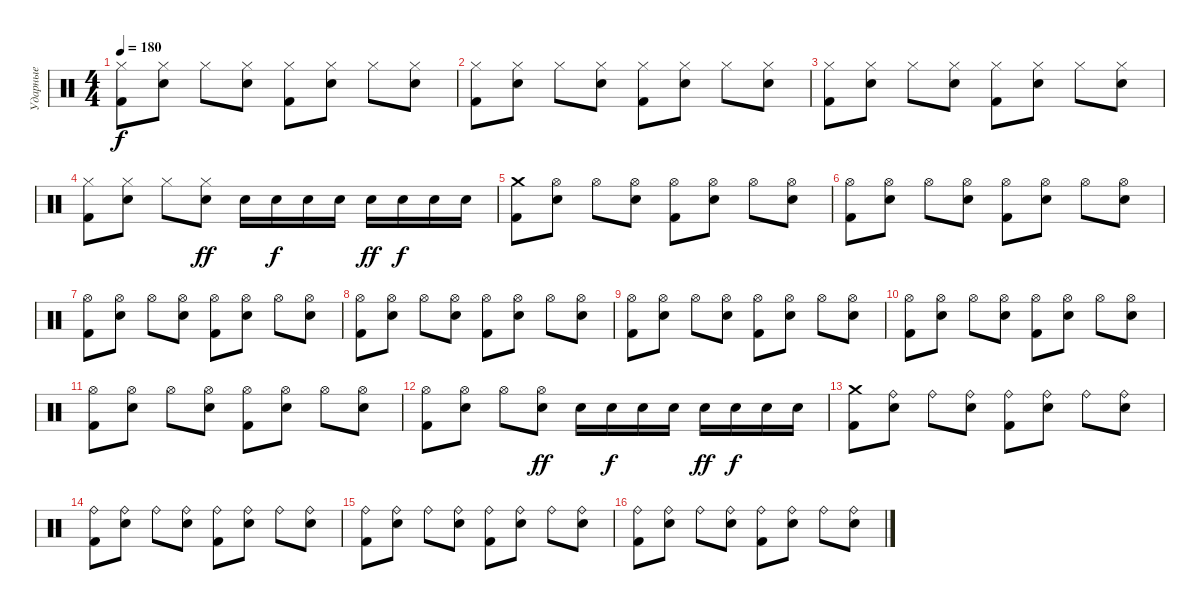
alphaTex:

\track ("Ударные" "Ударные") {instrument percussion}
\staff {score}
\articulation defaults
\ts (4 4)
\tempo 180
\clef neutral
\ks c
("Hi-Hat (closed)" "Kick (hit) 2").8{dy f} ("Hi-Hat (closed)" "Snare (hit) 2").8 "Hi-Hat (closed)".8 ("Hi-Hat (closed)" "Snare (hit) 2").8 ("Hi-Hat (closed)" "Kick (hit) 2").8 ("Hi-Hat (closed)" "Snare (hit) 2").8 "Hi-Hat (closed)".8 ("Hi-Hat (closed)" "Snare (hit) 2").8 |
("Hi-Hat (closed)" "Kick (hit) 2").8 ("Hi-Hat (closed)" "Snare (hit) 2").8 "Hi-Hat (closed)".8 ("Hi-Hat (closed)" "Snare (hit) 2").8 ("Hi-Hat (closed)" "Kick (hit) 2").8 ("Hi-Hat (closed)" "Snare (hit) 2").8 "Hi-Hat (closed)".8 ("Hi-Hat (closed)" "Snare (hit) 2").8 |
("Hi-Hat (closed)" "Kick (hit) 2").8 ("Hi-Hat (closed)" "Snare (hit) 2").8 "Hi-Hat (closed)".8 ("Hi-Hat (closed)" "Snare (hit) 2").8 ("Hi-Hat (closed)" "Kick (hit) 2").8 ("Hi-Hat (closed)" "Snare (hit) 2").8 "Hi-Hat (closed)".8 ("Hi-Hat (closed)" "Snare (hit) 2").8 |
("Hi-Hat (closed)" "Kick (hit) 2").8 ("Hi-Hat (closed)" "Snare (hit) 2").8 "Hi-Hat (closed)".8 ("Hi-Hat (closed)" "Snare (hit) 2").8{dy ff} "Snare (hit) 2".16 "Snare (hit) 2".16{dy f} "Snare (hit) 2".16 "Snare (hit) 2".16 "Snare (hit) 2".16{dy ff} "Snare (hit) 2".16{dy f} "Snare (hit) 2".16 "Snare (hit) 2".16 |
("Crash medium (hit)" "Kick (hit) 2").8 ("Hi-Hat (open)" "Snare (hit) 2").8 "Hi-Hat (open)".8 ("Hi-Hat (open)" "Snare (hit) 2").8 ("Hi-Hat (open)" "Kick (hit) 2").8 ("Hi-Hat (open)" "Snare (hit) 2").8 "Hi-Hat (open)".8 ("Hi-Hat (open)" "Snare (hit) 2").8 |
("Hi-Hat (open)" "Kick (hit) 2").8 ("Hi-Hat (open)" "Snare (hit) 2").8 "Hi-Hat (open)".8 ("Hi-Hat (open)" "Snare (hit) 2").8 ("Hi-Hat (open)" "Kick (hit) 2").8 ("Hi-Hat (open)" "Snare (hit) 2").8 "Hi-Hat (open)".8 ("Hi-Hat (open)" "Snare (hit) 2").8 |
("Hi-Hat (open)" "Kick (hit) 2").8 ("Hi-Hat (open)" "Snare (hit) 2").8 "Hi-Hat (open)".8 ("Hi-Hat (open)" "Snare (hit) 2").8 ("Hi-Hat (open)" "Kick (hit) 2").8 ("Hi-Hat (open)" "Snare (hit) 2").8 "Hi-Hat (open)".8 ("Hi-Hat (open)" "Snare (hit) 2").8 |
("Hi-Hat (open)" "Kick (hit) 2").8 ("Hi-Hat (open)" "Snare (hit) 2").8 "Hi-Hat (open)".8 ("Hi-Hat (open)" "Snare (hit) 2").8 ("Hi-Hat (open)" "Kick (hit) 2").8 ("Hi-Hat (open)" "Snare (hit) 2").8 "Hi-Hat (open)".8 ("Hi-Hat (open)" "Snare (hit) 2").8 |
("Hi-Hat (open)" "Kick (hit) 2").8 ("Hi-Hat (open)" "Snare (hit) 2").8 "Hi-Hat (open)".8 ("Hi-Hat (open)" "Snare (hit) 2").8 ("Hi-Hat (open)" "Kick (hit) 2").8 ("Hi-Hat (open)" "Snare (hit) 2").8 "Hi-Hat (open)".8 ("Hi-Hat (open)" "Snare (hit) 2").8 |
("Hi-Hat (open)" "Kick (hit) 2").8 ("Hi-Hat (open)" "Snare (hit) 2").8 "Hi-Hat (open)".8 ("Hi-Hat (open)" "Snare (hit) 2").8 ("Hi-Hat (open)" "Kick (hit) 2").8 ("Hi-Hat (open)" "Snare (hit) 2").8 "Hi-Hat (open)".8 ("Hi-Hat (open)" "Snare (hit) 2").8 |
("Hi-Hat (open)" "Kick (hit) 2").8 ("Hi-Hat (open)" "Snare (hit) 2").8 "Hi-Hat (open)".8 ("Hi-Hat (open)" "Snare (hit) 2").8 ("Hi-Hat (open)" "Kick (hit) 2").8 ("Hi-Hat (open)" "Snare (hit) 2").8 "Hi-Hat (open)".8 ("Hi-Hat (open)" "Snare (hit) 2").8 |
("Hi-Hat (open)" "Kick (hit) 2").8 ("Hi-Hat (open)" "Snare (hit) 2").8 "Hi-Hat (open)".8 ("Hi-Hat (open)" "Snare (hit) 2").8{dy ff} "Snare (hit) 2".16 "Snare (hit) 2".16{dy f} "Snare (hit) 2".16 "Snare (hit) 2".16 "Snare (hit) 2".16{dy ff} "Snare (hit) 2".16{dy f} "Snare (hit) 2".16 "Snare (hit) 2".16 |
("Crash medium (hit)" "Kick (hit) 2").8 ("Ride (bell)" "Snare (hit) 2").8 "Ride (bell)".8 ("Ride (bell)" "Snare (hit) 2").8 ("Ride (bell)" "Kick (hit) 2").8 ("Ride (bell)" "Snare (hit) 2").8 "Ride (bell)".8 ("Ride (bell)" "Snare (hit) 2").8 |
("Ride (bell)" "Kick (hit) 2").8 ("Ride (bell)" "Snare (hit) 2").8 "Ride (bell)".8 ("Ride (bell)" "Snare (hit) 2").8 ("Ride (bell)" "Kick (hit) 2").8 ("Ride (bell)" "Snare (hit) 2").8 "Ride (bell)".8 ("Ride (bell)" "Snare (hit) 2").8 |
("Ride (bell)" "Kick (hit) 2").8 ("Ride (bell)" "Snare (hit) 2").8 "Ride (bell)".8 ("Ride (bell)" "Snare (hit) 2").8 ("Ride (bell)" "Kick (hit) 2").8 ("Ride (bell)" "Snare (hit) 2").8 "Ride (bell)".8 ("Ride (bell)" "Snare (hit) 2").8 |
("Ride (bell)" "Kick (hit) 2").8 ("Ride (bell)" "Snare (hit) 2").8 "Ride (bell)".8 ("Ride (bell)" "Snare (hit) 2").8 ("Ride (bell)" "Kick (hit) 2").8 ("Ride (bell)" "Snare (hit) 2").8 "Ride (bell)".8 ("Ride (bell)" "Snare (hit) 2").8
